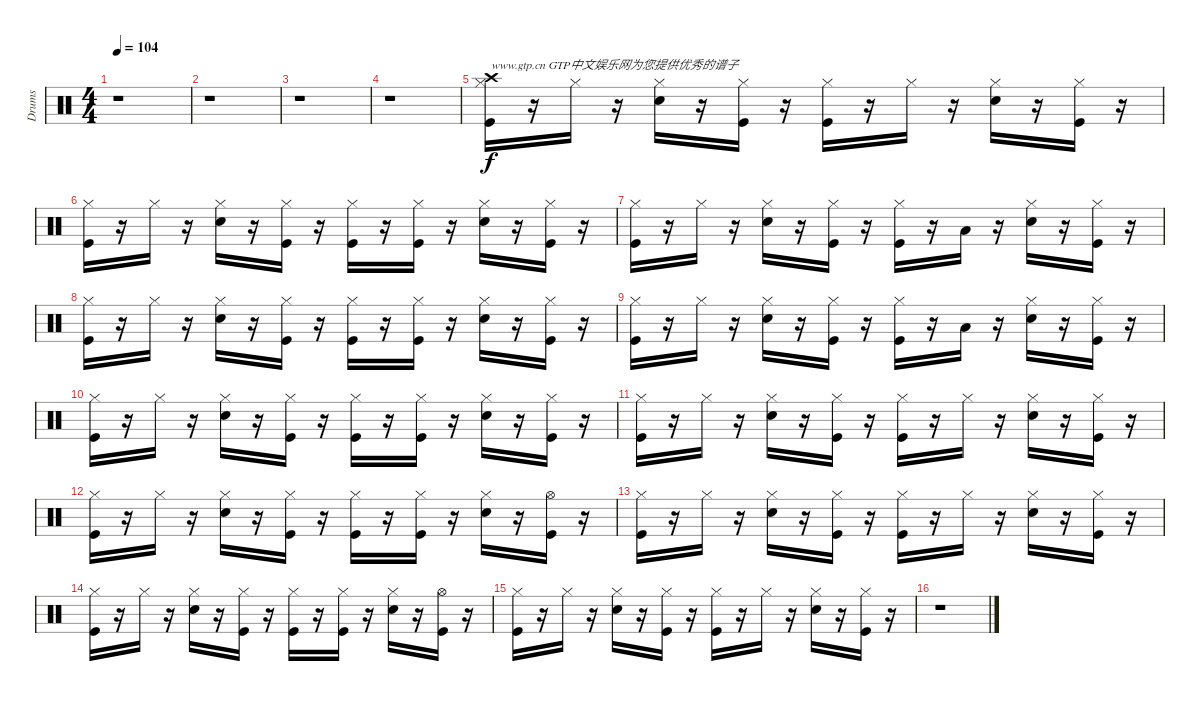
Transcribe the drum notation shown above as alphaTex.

\track ("Drums" "Drums") {instrument percussion}
\staff {score}
\articulation defaults
\ts (4 4)
\tempo 104
\clef neutral
\ks c
r.1{dy f} |
r.1 |
r.1 |
r.1 |
("Kick (hit)" "Hi-Hat (closed)" "Crash high (hit)").16{txt "www.gtp.cn GTP中文娱乐网为您提供优秀的谱子"} r.16 "Hi-Hat (closed)".16 r.16 ("Snare (hit) 2" "Hi-Hat (closed)").16 r.16 ("Kick (hit)" "Hi-Hat (closed)").16 r.16 ("Kick (hit)" "Hi-Hat (closed)").16 r.16 "Hi-Hat (closed)".16 r.16 ("Snare (hit) 2" "Hi-Hat (closed)").16 r.16 ("Kick (hit)" "Hi-Hat (closed)").16 r.16 |
("Kick (hit)" "Hi-Hat (closed)").16 r.16 "Hi-Hat (closed)".16 r.16 ("Snare (hit) 2" "Hi-Hat (closed)").16 r.16 ("Kick (hit)" "Hi-Hat (closed)").16 r.16 ("Kick (hit)" "Hi-Hat (closed)").16 r.16 ("Kick (hit)" "Hi-Hat (closed)").16 r.16 ("Snare (hit) 2" "Hi-Hat (closed)").16 r.16 ("Kick (hit)" "Hi-Hat (closed)").16 r.16 |
("Kick (hit)" "Hi-Hat (closed)").16 r.16 "Hi-Hat (closed)".16 r.16 ("Snare (hit) 2" "Hi-Hat (closed)").16 r.16 ("Kick (hit)" "Hi-Hat (closed)").16 r.16 ("Kick (hit)" "Hi-Hat (closed)").16 r.16 "Low Floor Tom (hit)".16 r.16 ("Snare (hit) 2" "Hi-Hat (closed)").16 r.16 ("Kick (hit)" "Hi-Hat (closed)").16 r.16 |
("Kick (hit)" "Hi-Hat (closed)").16 r.16 "Hi-Hat (closed)".16 r.16 ("Snare (hit) 2" "Hi-Hat (closed)").16 r.16 ("Kick (hit)" "Hi-Hat (closed)").16 r.16 ("Kick (hit)" "Hi-Hat (closed)").16 r.16 ("Kick (hit)" "Hi-Hat (closed)").16 r.16 ("Snare (hit) 2" "Hi-Hat (closed)").16 r.16 ("Kick (hit)" "Hi-Hat (closed)").16 r.16 |
("Kick (hit)" "Hi-Hat (closed)").16 r.16 "Hi-Hat (closed)".16 r.16 ("Snare (hit) 2" "Hi-Hat (closed)").16 r.16 ("Kick (hit)" "Hi-Hat (closed)").16 r.16 ("Kick (hit)" "Hi-Hat (closed)").16 r.16 "Low Floor Tom (hit)".16 r.16 ("Snare (hit) 2" "Hi-Hat (closed)").16 r.16 ("Kick (hit)" "Hi-Hat (closed)").16 r.16 |
("Kick (hit)" "Hi-Hat (closed)").16 r.16 "Hi-Hat (closed)".16 r.16 ("Snare (hit) 2" "Hi-Hat (closed)").16 r.16 ("Kick (hit)" "Hi-Hat (closed)").16 r.16 ("Kick (hit)" "Hi-Hat (closed)").16 r.16 ("Kick (hit)" "Hi-Hat (closed)").16 r.16 ("Snare (hit) 2" "Hi-Hat (closed)").16 r.16 ("Kick (hit)" "Hi-Hat (closed)").16 r.16 |
("Kick (hit)" "Hi-Hat (closed)").16 r.16 "Hi-Hat (closed)".16 r.16 ("Snare (hit) 2" "Hi-Hat (closed)").16 r.16 ("Kick (hit)" "Hi-Hat (closed)").16 r.16 ("Kick (hit)" "Hi-Hat (closed)").16 r.16 "Hi-Hat (closed)".16 r.16 ("Snare (hit) 2" "Hi-Hat (closed)").16 r.16 ("Kick (hit)" "Hi-Hat (closed)").16 r.16 |
("Kick (hit)" "Hi-Hat (closed)").16 r.16 "Hi-Hat (closed)".16 r.16 ("Snare (hit) 2" "Hi-Hat (closed)").16 r.16 ("Kick (hit)" "Hi-Hat (closed)").16 r.16 ("Kick (hit)" "Hi-Hat (closed)").16 r.16 ("Kick (hit)" "Hi-Hat (closed)").16 r.16 ("Snare (hit) 2" "Hi-Hat (closed)").16 r.16 ("Kick (hit)" "Hi-Hat (open)").16 r.16 |
("Kick (hit)" "Hi-Hat (closed)").16 r.16 "Hi-Hat (closed)".16 r.16 ("Snare (hit) 2" "Hi-Hat (closed)").16 r.16 ("Kick (hit)" "Hi-Hat (closed)").16 r.16 ("Kick (hit)" "Hi-Hat (closed)").16 r.16 "Hi-Hat (closed)".16 r.16 ("Snare (hit) 2" "Hi-Hat (closed)").16 r.16 ("Kick (hit)" "Hi-Hat (closed)").16 r.16 |
("Kick (hit)" "Hi-Hat (closed)").16 r.16 "Hi-Hat (closed)".16 r.16 ("Snare (hit) 2" "Hi-Hat (closed)").16 r.16 ("Kick (hit)" "Hi-Hat (closed)").16 r.16 ("Kick (hit)" "Hi-Hat (closed)").16 r.16 ("Kick (hit)" "Hi-Hat (closed)").16 r.16 ("Snare (hit) 2" "Hi-Hat (closed)").16 r.16 ("Kick (hit)" "Hi-Hat (open)").16 r.16 |
("Kick (hit)" "Hi-Hat (closed)").16 r.16 "Hi-Hat (closed)".16 r.16 ("Snare (hit) 2" "Hi-Hat (closed)").16 r.16 ("Kick (hit)" "Hi-Hat (closed)").16 r.16 ("Kick (hit)" "Hi-Hat (closed)").16 r.16 "Hi-Hat (closed)".16 r.16 ("Snare (hit) 2" "Hi-Hat (closed)").16 r.16 ("Kick (hit)" "Hi-Hat (closed)").16 r.16 |
r.1
